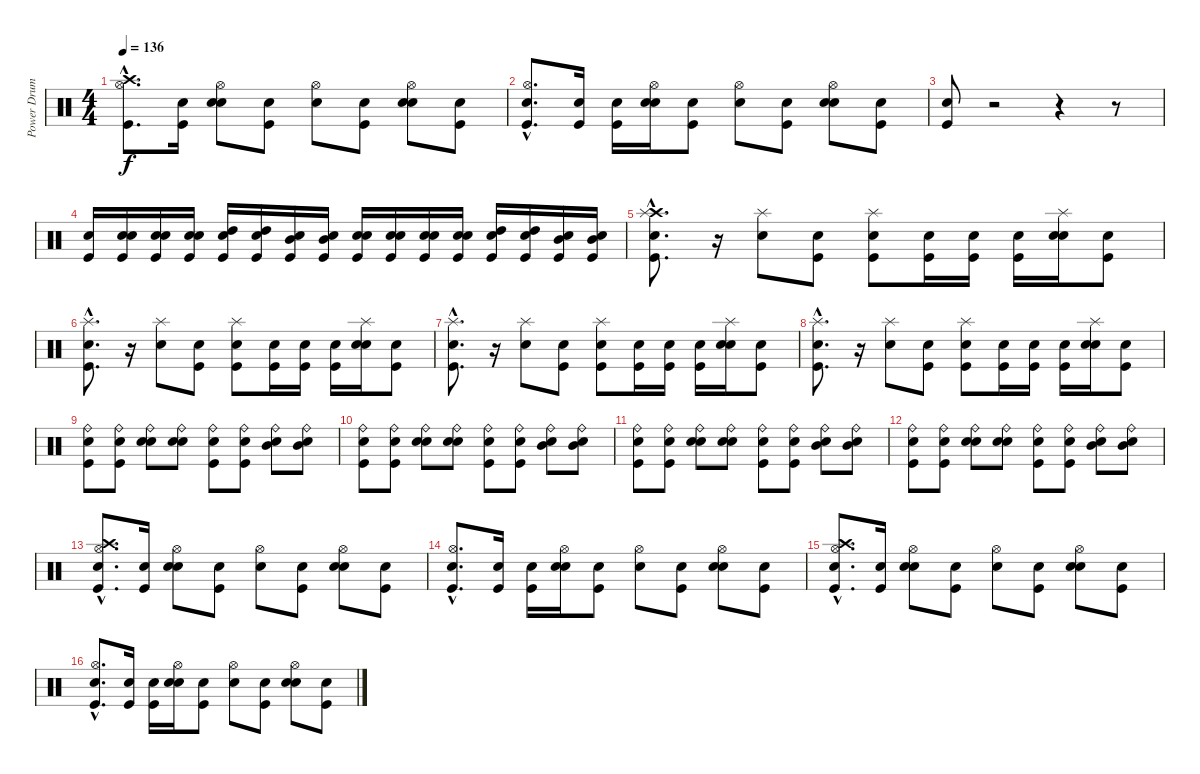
\track ("Power Drums" "Power Drum") {instrument percussion}
\staff {score}
\articulation defaults
\ts (4 4)
\tempo 136
\clef neutral
\ks c
("Kick (hit)"{hac} "Hi-Hat (open)"{hac} "Crash high (hit)"{hac}).8{d dy f} ("Snare (hit)" "Kick (hit)").16 ("Snare (hit)" "Snare (hit) 2" "Hi-Hat (open)").8 ("Snare (hit)" "Kick (hit)").8 ("Snare (hit)" "Hi-Hat (open)").8 ("Snare (hit)" "Kick (hit)").8 ("Snare (hit)" "Snare (hit) 2" "Hi-Hat (open)").8 ("Snare (hit)" "Kick (hit)").8 |
("Snare (hit)"{hac} "Kick (hit)"{hac} "Hi-Hat (open)"{hac}).8{d} ("Snare (hit)" "Kick (hit)").16 ("Snare (hit)" "Kick (hit)").16 ("Snare (hit)" "Snare (hit) 2" "Hi-Hat (open)").16 ("Snare (hit)" "Kick (hit)").8 ("Snare (hit)" "Hi-Hat (open)").8 ("Snare (hit)" "Kick (hit)").8 ("Snare (hit)" "Snare (hit) 2" "Hi-Hat (open)").8 ("Snare (hit)" "Kick (hit)").8 |
("Snare (hit)" "Kick (hit)").8 r.2 r.4 r.8 |
("Kick (hit)" "Snare (hit) 2").16 ("Snare (hit)" "Kick (hit)" "Snare (hit) 2").16 ("Snare (hit)" "Kick (hit)" "Snare (hit) 2").16 ("Snare (hit)" "Kick (hit)" "Snare (hit) 2").16 ("Snare (hit)" "Kick (hit)" "High Tom (hit)").16 ("Snare (hit)" "Kick (hit)" "High Tom (hit)").16 ("Snare (hit)" "Kick (hit)" "Mid Tom (hit)").16 ("Snare (hit)" "Kick (hit)" "Mid Tom (hit)").16 ("Snare (hit)" "Kick (hit)" "Snare (hit) 2").16 ("Snare (hit)" "Kick (hit)" "Snare (hit) 2").16 ("Snare (hit)" "Kick (hit)" "Snare (hit) 2").16 ("Snare (hit)" "Kick (hit)" "Snare (hit) 2").16 ("Snare (hit)" "Kick (hit)" "High Tom (hit)").16 ("Snare (hit)" "Kick (hit)" "High Tom (hit)").16 ("Snare (hit)" "Kick (hit)" "Mid Tom (hit)").16 ("Snare (hit)" "Kick (hit)" "Mid Tom (hit)").16 |
("Snare (hit)"{hac} "Kick (hit)"{hac} "Crash high (hit)"{hac} "Splash (hit)"{hac}).8{d} r.16 ("Snare (hit) 2" "Splash (hit)").8 ("Snare (hit)" "Kick (hit)").8 ("Snare (hit)" "Kick (hit)" "Splash (hit)").8 ("Snare (hit)" "Kick (hit)").16 ("Snare (hit)" "Kick (hit)").16 ("Snare (hit)" "Kick (hit)").16 ("Snare (hit)" "Snare (hit) 2" "Splash (hit)").16 ("Snare (hit)" "Kick (hit)").8 |
("Snare (hit)"{hac} "Kick (hit)"{hac} "Splash (hit)"{hac}).8{d} r.16 ("Snare (hit) 2" "Splash (hit)").8 ("Snare (hit)" "Kick (hit)").8 ("Snare (hit)" "Kick (hit)" "Splash (hit)").8 ("Snare (hit)" "Kick (hit)").16 ("Snare (hit)" "Kick (hit)").16 ("Snare (hit)" "Kick (hit)").16 ("Snare (hit)" "Snare (hit) 2" "Splash (hit)").16 ("Snare (hit)" "Kick (hit)").8 |
("Snare (hit)"{hac} "Kick (hit)"{hac} "Splash (hit)"{hac}).8{d} r.16 ("Snare (hit) 2" "Splash (hit)").8 ("Snare (hit)" "Kick (hit)").8 ("Snare (hit)" "Kick (hit)" "Splash (hit)").8 ("Snare (hit)" "Kick (hit)").16 ("Snare (hit)" "Kick (hit)").16 ("Snare (hit)" "Kick (hit)").16 ("Snare (hit)" "Snare (hit) 2" "Splash (hit)").16 ("Snare (hit)" "Kick (hit)").8 |
("Snare (hit)"{hac} "Kick (hit)"{hac} "Splash (hit)"{hac}).8{d} r.16 ("Snare (hit) 2" "Splash (hit)").8 ("Snare (hit)" "Kick (hit)").8 ("Snare (hit)" "Kick (hit)" "Splash (hit)").8 ("Snare (hit)" "Kick (hit)").16 ("Snare (hit)" "Kick (hit)").16 ("Snare (hit)" "Kick (hit)").16 ("Snare (hit)" "Snare (hit) 2" "Splash (hit)").16 ("Snare (hit)" "Kick (hit)").8 |
("Snare (hit)" "Kick (hit)" "Ride (bell)").8 ("Snare (hit)" "Kick (hit)" "Ride (bell)").8 ("Snare (hit)" "Snare (hit) 2" "Ride (bell)").8 ("Snare (hit)" "Snare (hit) 2" "Ride (bell)").8 ("Snare (hit)" "Kick (hit)" "Ride (bell)").8 ("Snare (hit)" "Kick (hit)" "Ride (bell)").8 ("Snare (hit)" "Mid Tom (hit)" "Ride (bell)").8 ("Snare (hit)" "Mid Tom (hit)" "Ride (bell)").8 |
("Snare (hit)" "Kick (hit)" "Ride (bell)").8 ("Snare (hit)" "Kick (hit)" "Ride (bell)").8 ("Snare (hit)" "Snare (hit) 2" "Ride (bell)").8 ("Snare (hit)" "Snare (hit) 2" "Ride (bell)").8 ("Snare (hit)" "Kick (hit)" "Ride (bell)").8 ("Snare (hit)" "Kick (hit)" "Ride (bell)").8 ("Snare (hit)" "Mid Tom (hit)" "Ride (bell)").8 ("Snare (hit)" "Mid Tom (hit)" "Ride (bell)").8 |
("Snare (hit)" "Kick (hit)" "Ride (bell)").8 ("Snare (hit)" "Kick (hit)" "Ride (bell)").8 ("Snare (hit)" "Snare (hit) 2" "Ride (bell)").8 ("Snare (hit)" "Snare (hit) 2" "Ride (bell)").8 ("Snare (hit)" "Kick (hit)" "Ride (bell)").8 ("Snare (hit)" "Kick (hit)" "Ride (bell)").8 ("Snare (hit)" "Mid Tom (hit)" "Ride (bell)").8 ("Snare (hit)" "Mid Tom (hit)" "Ride (bell)").8 |
("Snare (hit)" "Kick (hit)" "Ride (bell)").8 ("Snare (hit)" "Kick (hit)" "Ride (bell)").8 ("Snare (hit)" "Snare (hit) 2" "Ride (bell)").8 ("Snare (hit)" "Snare (hit) 2" "Ride (bell)").8 ("Snare (hit)" "Kick (hit)" "Ride (bell)").8 ("Snare (hit)" "Kick (hit)" "Ride (bell)").8 ("Snare (hit)" "Mid Tom (hit)" "Ride (bell)").8 ("Snare (hit)" "Mid Tom (hit)" "Ride (bell)").8 |
("Snare (hit)"{hac} "Kick (hit)"{hac} "Hi-Hat (open)"{hac} "Crash high (hit)"{hac}).8{d} ("Snare (hit)" "Kick (hit)").16 ("Snare (hit)" "Snare (hit) 2" "Hi-Hat (open)").8 ("Snare (hit)" "Kick (hit)").8 ("Snare (hit)" "Hi-Hat (open)").8 ("Snare (hit)" "Kick (hit)").8 ("Snare (hit)" "Snare (hit) 2" "Hi-Hat (open)").8 ("Snare (hit)" "Kick (hit)").8 |
("Snare (hit)"{hac} "Kick (hit)"{hac} "Hi-Hat (open)"{hac}).8{d} ("Snare (hit)" "Kick (hit)").16 ("Snare (hit)" "Kick (hit)").16 ("Snare (hit)" "Snare (hit) 2" "Hi-Hat (open)").16 ("Snare (hit)" "Kick (hit)").8 ("Snare (hit)" "Hi-Hat (open)").8 ("Snare (hit)" "Kick (hit)").8 ("Snare (hit)" "Snare (hit) 2" "Hi-Hat (open)").8 ("Snare (hit)" "Kick (hit)").8 |
("Snare (hit)"{hac} "Kick (hit)"{hac} "Hi-Hat (open)"{hac} "Crash high (hit)"{hac}).8{d} ("Snare (hit)" "Kick (hit)").16 ("Snare (hit)" "Snare (hit) 2" "Hi-Hat (open)").8 ("Snare (hit)" "Kick (hit)").8 ("Snare (hit)" "Hi-Hat (open)").8 ("Snare (hit)" "Kick (hit)").8 ("Snare (hit)" "Snare (hit) 2" "Hi-Hat (open)").8 ("Snare (hit)" "Kick (hit)").8 |
("Snare (hit)"{hac} "Kick (hit)"{hac} "Hi-Hat (open)"{hac}).8{d} ("Snare (hit)" "Kick (hit)").16 ("Snare (hit)" "Kick (hit)").16 ("Snare (hit)" "Snare (hit) 2" "Hi-Hat (open)").16 ("Snare (hit)" "Kick (hit)").8 ("Snare (hit)" "Hi-Hat (open)").8 ("Snare (hit)" "Kick (hit)").8 ("Snare (hit)" "Snare (hit) 2" "Hi-Hat (open)").8 ("Snare (hit)" "Kick (hit)").8
